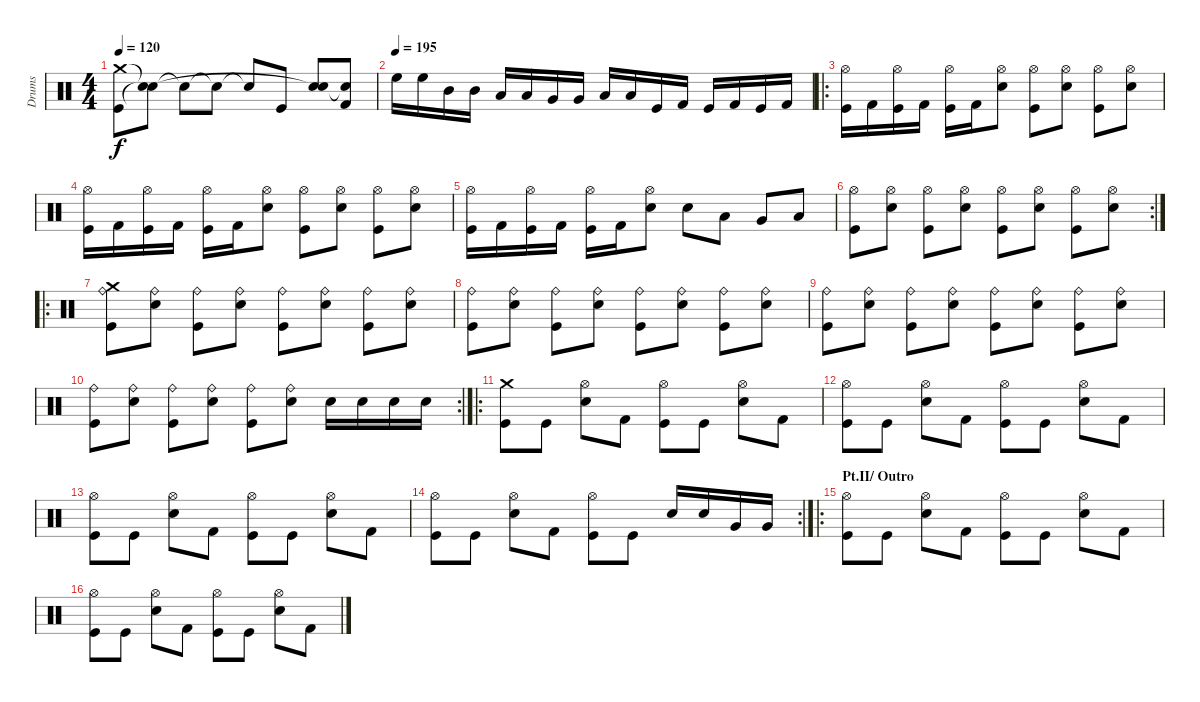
\track ("Drums" "Drums") {instrument percussion}
\staff {score}
\articulation defaults
\ts (4 4)
\tempo 120
\clef neutral
\ks c
("Crash medium (hit)" "Kick (hit)").8{dy f} ("Snare (hit)"{t} "Snare (hit)"{t}).8 "Snare (hit)"{t}.8 "Snare (hit)"{t}.8 "Snare (hit)"{t}.8 "Kick (hit)".8 ("Electric Snare (hit)" "Snare (hit)"{t}).8 ("Snare (hit)"{t} "Kick (hit) 2").8 |
\tempo (195)
"High Floor Tom (hit)".16 "High Floor Tom (hit)".16 "Mid Tom (hit)".16 "Mid Tom (hit)".16 "Low Tom (hit)".16 "Low Tom (hit)".16 "Very Low Tom (hit)".16 "Very Low Tom (hit)".16 "Low Floor Tom (hit)".16 "Low Floor Tom (hit)".16 "Kick (hit)".16 "Kick (hit) 2".16 "Kick (hit)".16 "Kick (hit) 2".16 "Kick (hit)".16 "Kick (hit) 2".16 |
\ro
("Hi-Hat (open)" "Kick (hit)").16 "Kick (hit) 2".16 ("Hi-Hat (open)" "Kick (hit)").16 "Kick (hit) 2".16 ("Hi-Hat (open)" "Kick (hit)").16 "Kick (hit) 2".16 ("Hi-Hat (open)" "Electric Snare (hit)").8 ("Hi-Hat (open)" "Kick (hit)").8 ("Hi-Hat (open)" "Electric Snare (hit)").8 ("Hi-Hat (open)" "Kick (hit)").8 ("Hi-Hat (open)" "Electric Snare (hit)").8 |
("Hi-Hat (open)" "Kick (hit)").16 "Kick (hit) 2".16 ("Hi-Hat (open)" "Kick (hit)").16 "Kick (hit) 2".16 ("Hi-Hat (open)" "Kick (hit)").16 "Kick (hit) 2".16 ("Hi-Hat (open)" "Electric Snare (hit)").8 ("Hi-Hat (open)" "Kick (hit)").8 ("Hi-Hat (open)" "Electric Snare (hit)").8 ("Hi-Hat (open)" "Kick (hit)").8 ("Hi-Hat (open)" "Electric Snare (hit)").8 |
("Hi-Hat (open)" "Kick (hit)").16 "Kick (hit) 2".16 ("Hi-Hat (open)" "Kick (hit)").16 "Kick (hit) 2".16 ("Hi-Hat (open)" "Kick (hit)").16 "Kick (hit) 2".16 ("Hi-Hat (open)" "Electric Snare (hit)").8 "Electric Snare (hit)".8 "Low Tom (hit)".8 "Very Low Tom (hit)".8 "Low Floor Tom (hit)".8 |
\rc 2
("Hi-Hat (open)" "Kick (hit)").8 ("Hi-Hat (open)" "Electric Snare (hit)").8 ("Hi-Hat (open)" "Kick (hit)").8 ("Hi-Hat (open)" "Electric Snare (hit)").8 ("Hi-Hat (open)" "Kick (hit)").8 ("Hi-Hat (open)" "Electric Snare (hit)").8 ("Hi-Hat (open)" "Kick (hit)").8 ("Hi-Hat (open)" "Electric Snare (hit)").8 |
\ro
("Ride (bell)" "Crash medium (hit)" "Kick (hit)").8 ("Ride (bell)" "Electric Snare (hit)").8 ("Ride (bell)" "Kick (hit)").8 ("Ride (bell)" "Electric Snare (hit)").8 ("Ride (bell)" "Kick (hit)").8 ("Ride (bell)" "Electric Snare (hit)").8 ("Ride (bell)" "Kick (hit)").8 ("Ride (bell)" "Electric Snare (hit)").8 |
("Ride (bell)" "Kick (hit)").8 ("Ride (bell)" "Electric Snare (hit)").8 ("Ride (bell)" "Kick (hit)").8 ("Ride (bell)" "Electric Snare (hit)").8 ("Ride (bell)" "Kick (hit)").8 ("Ride (bell)" "Electric Snare (hit)").8 ("Ride (bell)" "Kick (hit)").8 ("Ride (bell)" "Electric Snare (hit)").8 |
("Ride (bell)" "Kick (hit)").8 ("Ride (bell)" "Electric Snare (hit)").8 ("Ride (bell)" "Kick (hit)").8 ("Ride (bell)" "Electric Snare (hit)").8 ("Ride (bell)" "Kick (hit)").8 ("Ride (bell)" "Electric Snare (hit)").8 ("Ride (bell)" "Kick (hit)").8 ("Ride (bell)" "Electric Snare (hit)").8 |
\rc 2
("Ride (bell)" "Kick (hit)").8 ("Ride (bell)" "Electric Snare (hit)").8 ("Ride (bell)" "Kick (hit)").8 ("Ride (bell)" "Electric Snare (hit)").8 ("Ride (bell)" "Kick (hit)").8 ("Ride (bell)" "Electric Snare (hit)").8 "Electric Snare (hit)".16 "Electric Snare (hit)".16 "Electric Snare (hit)".16 "Electric Snare (hit)".16 |
\ro
("Crash medium (hit)" "Kick (hit)").8 "Kick (hit)".8 ("Hi-Hat (open)" "Electric Snare (hit)").8 "Kick (hit) 2".8 ("Hi-Hat (open)" "Kick (hit)").8 "Kick (hit)".8 ("Hi-Hat (open)" "Electric Snare (hit)").8 "Kick (hit) 2".8 |
("Hi-Hat (open)" "Kick (hit)").8 "Kick (hit)".8 ("Hi-Hat (open)" "Electric Snare (hit)").8 "Kick (hit) 2".8 ("Hi-Hat (open)" "Kick (hit)").8 "Kick (hit)".8 ("Hi-Hat (open)" "Electric Snare (hit)").8 "Kick (hit) 2".8 |
("Hi-Hat (open)" "Kick (hit)").8 "Kick (hit)".8 ("Hi-Hat (open)" "Electric Snare (hit)").8 "Kick (hit) 2".8 ("Hi-Hat (open)" "Kick (hit)").8 "Kick (hit)".8 ("Hi-Hat (open)" "Electric Snare (hit)").8 "Kick (hit) 2".8 |
\rc 2
("Hi-Hat (open)" "Kick (hit)").8 "Kick (hit)".8 ("Hi-Hat (open)" "Electric Snare (hit)").8 "Kick (hit) 2".8 ("Hi-Hat (open)" "Kick (hit)").8 "Kick (hit)".8 "Electric Snare (hit)".16 "Electric Snare (hit)".16 "Very Low Tom (hit)".16 "Very Low Tom (hit)".16 |
\ro
\section ("" "Pt.II/ Outro")
("Hi-Hat (open)" "Kick (hit)").8 "Kick (hit)".8 ("Hi-Hat (open)" "Electric Snare (hit)").8 "Kick (hit) 2".8 ("Hi-Hat (open)" "Kick (hit)").8 "Kick (hit)".8 ("Hi-Hat (open)" "Electric Snare (hit)").8 "Kick (hit) 2".8 |
("Hi-Hat (open)" "Kick (hit)").8 "Kick (hit)".8 ("Hi-Hat (open)" "Electric Snare (hit)").8 "Kick (hit) 2".8 ("Hi-Hat (open)" "Kick (hit)").8 "Kick (hit)".8 ("Hi-Hat (open)" "Electric Snare (hit)").8 "Kick (hit) 2".8
